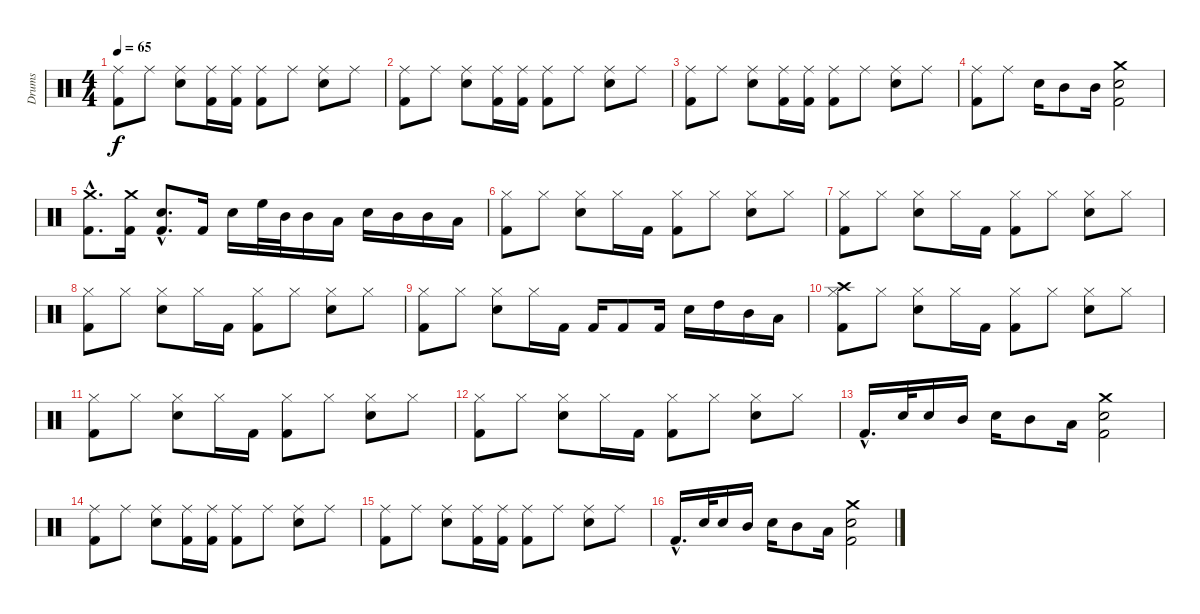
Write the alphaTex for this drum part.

\track ("Drums" "Drums") {instrument percussion}
\staff {score}
\articulation defaults
\ts (4 4)
\tempo 65
\clef neutral
\ks c
("Ride (middle)" "Kick (hit) 2").8{dy f} "Ride (middle)".8 ("Ride (middle)" "Electric Snare (hit)").8 ("Ride (middle)" "Kick (hit) 2").16 ("Ride (middle)" "Kick (hit) 2").16 ("Ride (middle)" "Kick (hit) 2").8 "Ride (middle)".8 ("Ride (middle)" "Electric Snare (hit)").8 "Ride (middle)".8 |
("Ride (middle)" "Kick (hit) 2").8 "Ride (middle)".8 ("Ride (middle)" "Electric Snare (hit)").8 ("Ride (middle)" "Kick (hit) 2").16 ("Ride (middle)" "Kick (hit) 2").16 ("Ride (middle)" "Kick (hit) 2").8 "Ride (middle)".8 ("Ride (middle)" "Electric Snare (hit)").8 "Ride (middle)".8 |
("Ride (middle)" "Kick (hit) 2").8 "Ride (middle)".8 ("Ride (middle)" "Electric Snare (hit)").8 ("Ride (middle)" "Kick (hit) 2").16 ("Ride (middle)" "Kick (hit) 2").16 ("Ride (middle)" "Kick (hit) 2").8 "Ride (middle)".8 ("Ride (middle)" "Electric Snare (hit)").8 "Ride (middle)".8 |
("Ride (middle)" "Kick (hit) 2").8 "Ride (middle)".8 "Electric Snare (hit)".16 "Mid Tom (hit)".8 "Mid Tom (hit)".16 ("Crash medium (hit)" "Electric Snare (hit)" "Kick (hit) 2").2 |
("Crash medium (hit)"{hac} "Kick (hit) 2"{hac}).8{d} ("Crash medium (hit)" "Kick (hit) 2").16 ("Electric Snare (hit)"{hac} "Kick (hit) 2"{hac}).8{d} "Kick (hit) 2".16 "Electric Snare (hit)".16 "High Floor Tom (hit)".32 "Mid Tom (hit)".32 "Mid Tom (hit)".16 "Low Tom (hit)".16 "Electric Snare (hit)".16 "Mid Tom (hit)".16 "Mid Tom (hit)".16 "Low Tom (hit)".16 |
("Hi-Hat (closed)" "Kick (hit) 2").8 "Hi-Hat (closed)".8 ("Hi-Hat (closed)" "Electric Snare (hit)").8 "Hi-Hat (closed)".16 "Kick (hit) 2".16 ("Hi-Hat (closed)" "Kick (hit) 2").8 "Hi-Hat (closed)".8 ("Hi-Hat (closed)" "Electric Snare (hit)").8 "Hi-Hat (closed)".8 |
("Hi-Hat (closed)" "Kick (hit) 2").8 "Hi-Hat (closed)".8 ("Hi-Hat (closed)" "Electric Snare (hit)").8 "Hi-Hat (closed)".16 "Kick (hit) 2".16 ("Hi-Hat (closed)" "Kick (hit) 2").8 "Hi-Hat (closed)".8 ("Hi-Hat (closed)" "Electric Snare (hit)").8 "Hi-Hat (closed)".8 |
("Hi-Hat (closed)" "Kick (hit) 2").8 "Hi-Hat (closed)".8 ("Hi-Hat (closed)" "Electric Snare (hit)").8 "Hi-Hat (closed)".16 "Kick (hit) 2".16 ("Hi-Hat (closed)" "Kick (hit) 2").8 "Hi-Hat (closed)".8 ("Hi-Hat (closed)" "Electric Snare (hit)").8 "Hi-Hat (closed)".8 |
("Hi-Hat (closed)" "Kick (hit) 2").8 "Hi-Hat (closed)".8 ("Hi-Hat (closed)" "Electric Snare (hit)").8 "Hi-Hat (closed)".16 "Kick (hit) 2".16 "Kick (hit) 2".16 "Kick (hit) 2".8 "Kick (hit) 2".16 "Electric Snare (hit)".16 "High Tom (hit)".16 "Mid Tom (hit)".16 "Low Tom (hit)".16 |
("Crash high (hit)" "Hi-Hat (closed)" "Kick (hit) 2").8 "Hi-Hat (closed)".8 ("Hi-Hat (closed)" "Electric Snare (hit)").8 "Hi-Hat (closed)".16 "Kick (hit) 2".16 ("Hi-Hat (closed)" "Kick (hit) 2").8 "Hi-Hat (closed)".8 ("Hi-Hat (closed)" "Electric Snare (hit)").8 "Hi-Hat (closed)".8 |
("Hi-Hat (closed)" "Kick (hit) 2").8 "Hi-Hat (closed)".8 ("Hi-Hat (closed)" "Electric Snare (hit)").8 "Hi-Hat (closed)".16 "Kick (hit) 2".16 ("Hi-Hat (closed)" "Kick (hit) 2").8 "Hi-Hat (closed)".8 ("Hi-Hat (closed)" "Electric Snare (hit)").8 "Hi-Hat (closed)".8 |
("Hi-Hat (closed)" "Kick (hit) 2").8 "Hi-Hat (closed)".8 ("Hi-Hat (closed)" "Electric Snare (hit)").8 "Hi-Hat (closed)".16 "Kick (hit) 2".16 ("Hi-Hat (closed)" "Kick (hit) 2").8 "Hi-Hat (closed)".8 ("Hi-Hat (closed)" "Electric Snare (hit)").8 "Hi-Hat (closed)".8 |
"Kick (hit) 2"{hac}.16{d} "Electric Snare (hit)".32 "Electric Snare (hit)".16 "Mid Tom (hit)".16 "Electric Snare (hit)".16 "Mid Tom (hit)".8 "Low Tom (hit)".16 ("Crash medium (hit)" "Electric Snare (hit)" "Kick (hit) 2").2 |
("Ride (middle)" "Kick (hit) 2").8 "Ride (middle)".8 ("Ride (middle)" "Electric Snare (hit)").8 ("Ride (middle)" "Kick (hit) 2").16 ("Ride (middle)" "Kick (hit) 2").16 ("Ride (middle)" "Kick (hit) 2").8 "Ride (middle)".8 ("Ride (middle)" "Electric Snare (hit)").8 "Ride (middle)".8 |
("Ride (middle)" "Kick (hit) 2").8 "Ride (middle)".8 ("Ride (middle)" "Electric Snare (hit)").8 ("Ride (middle)" "Kick (hit) 2").16 ("Ride (middle)" "Kick (hit) 2").16 ("Ride (middle)" "Kick (hit) 2").8 "Ride (middle)".8 ("Ride (middle)" "Electric Snare (hit)").8 "Ride (middle)".8 |
"Kick (hit) 2"{hac}.16{d} "Electric Snare (hit)".32 "Electric Snare (hit)".16 "Mid Tom (hit)".16 "Electric Snare (hit)".16 "Mid Tom (hit)".8 "Low Tom (hit)".16 ("Crash medium (hit)" "Electric Snare (hit)" "Kick (hit) 2").2
